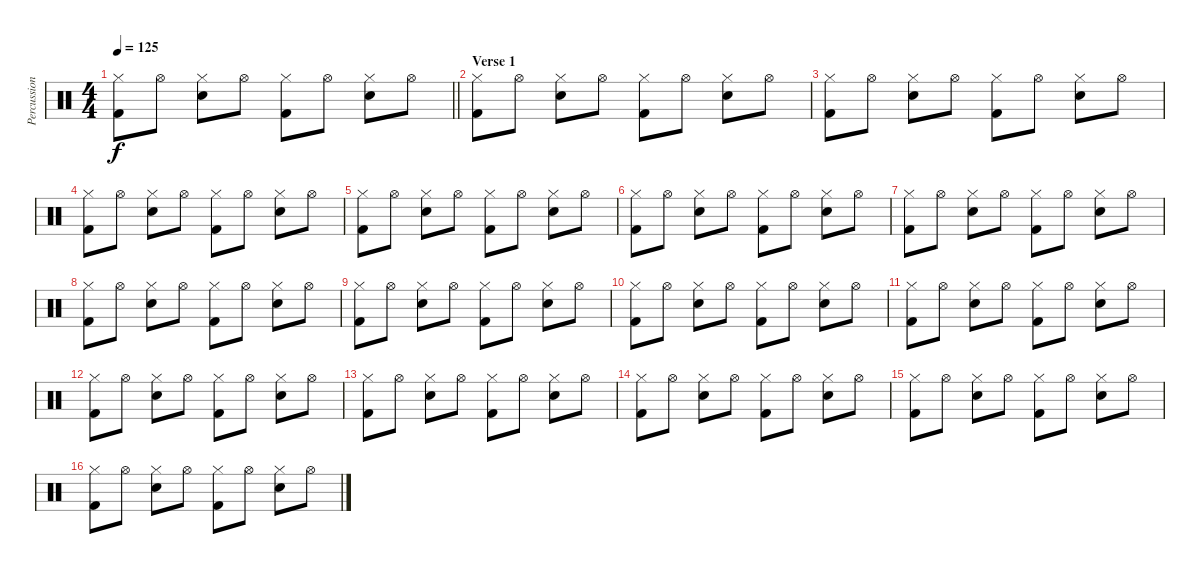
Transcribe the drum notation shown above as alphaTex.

\track ("Percussion" "Percussion") {instrument percussion}
\staff {score}
\articulation defaults
\ts (4 4)
\tempo 125
\clef neutral
\barLineRight lightlight
\ks c
("Hi-Hat (closed)" "Kick (hit) 2").8{dy f} "Hi-Hat (open)".8 ("Hi-Hat (closed)" "Snare (hit) 2").8 "Hi-Hat (open)".8 ("Hi-Hat (closed)" "Kick (hit) 2").8 "Hi-Hat (open)".8 ("Hi-Hat (closed)" "Snare (hit) 2").8 "Hi-Hat (open)".8 |
\section ("" "Verse 1")
("Hi-Hat (closed)" "Kick (hit) 2").8 "Hi-Hat (open)".8 ("Hi-Hat (closed)" "Snare (hit) 2").8 "Hi-Hat (open)".8 ("Hi-Hat (closed)" "Kick (hit) 2").8 "Hi-Hat (open)".8 ("Hi-Hat (closed)" "Snare (hit) 2").8 "Hi-Hat (open)".8 |
("Hi-Hat (closed)" "Kick (hit) 2").8 "Hi-Hat (open)".8 ("Hi-Hat (closed)" "Snare (hit) 2").8 "Hi-Hat (open)".8 ("Hi-Hat (closed)" "Kick (hit) 2").8 "Hi-Hat (open)".8 ("Hi-Hat (closed)" "Snare (hit) 2").8 "Hi-Hat (open)".8 |
("Hi-Hat (closed)" "Kick (hit) 2").8 "Hi-Hat (open)".8 ("Hi-Hat (closed)" "Snare (hit) 2").8 "Hi-Hat (open)".8 ("Hi-Hat (closed)" "Kick (hit) 2").8 "Hi-Hat (open)".8 ("Hi-Hat (closed)" "Snare (hit) 2").8 "Hi-Hat (open)".8 |
("Hi-Hat (closed)" "Kick (hit) 2").8 "Hi-Hat (open)".8 ("Hi-Hat (closed)" "Snare (hit) 2").8 "Hi-Hat (open)".8 ("Hi-Hat (closed)" "Kick (hit) 2").8 "Hi-Hat (open)".8 ("Hi-Hat (closed)" "Snare (hit) 2").8 "Hi-Hat (open)".8 |
("Hi-Hat (closed)" "Kick (hit) 2").8 "Hi-Hat (open)".8 ("Hi-Hat (closed)" "Snare (hit) 2").8 "Hi-Hat (open)".8 ("Hi-Hat (closed)" "Kick (hit) 2").8 "Hi-Hat (open)".8 ("Hi-Hat (closed)" "Snare (hit) 2").8 "Hi-Hat (open)".8 |
("Hi-Hat (closed)" "Kick (hit) 2").8 "Hi-Hat (open)".8 ("Hi-Hat (closed)" "Snare (hit) 2").8 "Hi-Hat (open)".8 ("Hi-Hat (closed)" "Kick (hit) 2").8 "Hi-Hat (open)".8 ("Hi-Hat (closed)" "Snare (hit) 2").8 "Hi-Hat (open)".8 |
("Hi-Hat (closed)" "Kick (hit) 2").8 "Hi-Hat (open)".8 ("Hi-Hat (closed)" "Snare (hit) 2").8 "Hi-Hat (open)".8 ("Hi-Hat (closed)" "Kick (hit) 2").8 "Hi-Hat (open)".8 ("Hi-Hat (closed)" "Snare (hit) 2").8 "Hi-Hat (open)".8 |
("Hi-Hat (closed)" "Kick (hit) 2").8 "Hi-Hat (open)".8 ("Hi-Hat (closed)" "Snare (hit) 2").8 "Hi-Hat (open)".8 ("Hi-Hat (closed)" "Kick (hit) 2").8 "Hi-Hat (open)".8 ("Hi-Hat (closed)" "Snare (hit) 2").8 "Hi-Hat (open)".8 |
("Hi-Hat (closed)" "Kick (hit) 2").8 "Hi-Hat (open)".8 ("Hi-Hat (closed)" "Snare (hit) 2").8 "Hi-Hat (open)".8 ("Hi-Hat (closed)" "Kick (hit) 2").8 "Hi-Hat (open)".8 ("Hi-Hat (closed)" "Snare (hit) 2").8 "Hi-Hat (open)".8 |
("Hi-Hat (closed)" "Kick (hit) 2").8 "Hi-Hat (open)".8 ("Hi-Hat (closed)" "Snare (hit) 2").8 "Hi-Hat (open)".8 ("Hi-Hat (closed)" "Kick (hit) 2").8 "Hi-Hat (open)".8 ("Hi-Hat (closed)" "Snare (hit) 2").8 "Hi-Hat (open)".8 |
("Hi-Hat (closed)" "Kick (hit) 2").8 "Hi-Hat (open)".8 ("Hi-Hat (closed)" "Snare (hit) 2").8 "Hi-Hat (open)".8 ("Hi-Hat (closed)" "Kick (hit) 2").8 "Hi-Hat (open)".8 ("Hi-Hat (closed)" "Snare (hit) 2").8 "Hi-Hat (open)".8 |
("Hi-Hat (closed)" "Kick (hit) 2").8 "Hi-Hat (open)".8 ("Hi-Hat (closed)" "Snare (hit) 2").8 "Hi-Hat (open)".8 ("Hi-Hat (closed)" "Kick (hit) 2").8 "Hi-Hat (open)".8 ("Hi-Hat (closed)" "Snare (hit) 2").8 "Hi-Hat (open)".8 |
("Hi-Hat (closed)" "Kick (hit) 2").8 "Hi-Hat (open)".8 ("Hi-Hat (closed)" "Snare (hit) 2").8 "Hi-Hat (open)".8 ("Hi-Hat (closed)" "Kick (hit) 2").8 "Hi-Hat (open)".8 ("Hi-Hat (closed)" "Snare (hit) 2").8 "Hi-Hat (open)".8 |
("Hi-Hat (closed)" "Kick (hit) 2").8 "Hi-Hat (open)".8 ("Hi-Hat (closed)" "Snare (hit) 2").8 "Hi-Hat (open)".8 ("Hi-Hat (closed)" "Kick (hit) 2").8 "Hi-Hat (open)".8 ("Hi-Hat (closed)" "Snare (hit) 2").8 "Hi-Hat (open)".8 |
("Hi-Hat (closed)" "Kick (hit) 2").8 "Hi-Hat (open)".8 ("Hi-Hat (closed)" "Snare (hit) 2").8 "Hi-Hat (open)".8 ("Hi-Hat (closed)" "Kick (hit) 2").8 "Hi-Hat (open)".8 ("Hi-Hat (closed)" "Snare (hit) 2").8 "Hi-Hat (open)".8
